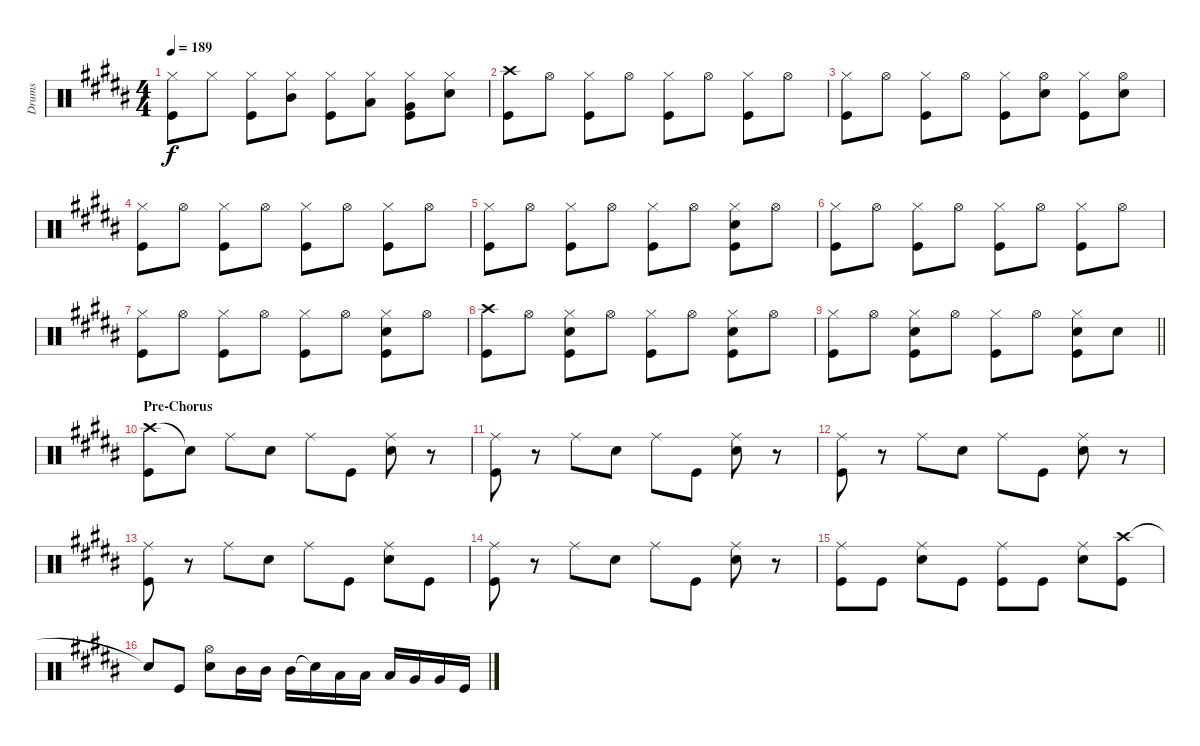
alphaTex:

\track ("Drums" "Drums") {instrument percussion}
\staff {score}
\articulation defaults
\ts (4 4)
\tempo 189
\clef neutral
\ks b
("Hi-Hat (closed)" "Kick (hit)").8{dy f} "Hi-Hat (closed)".8 ("Hi-Hat (closed)" "Kick (hit)").8 ("Hi-Hat (closed)" "Mid Tom (hit)").8 ("Hi-Hat (closed)" "Kick (hit)").8 ("Hi-Hat (closed)" "Low Tom (hit)").8 ("Hi-Hat (closed)" "Very Low Tom (hit)" "Kick (hit)").8 ("Hi-Hat (closed)" "Snare (hit) 2").8 |
("Crash high (hit)" "Kick (hit)").8 "Hi-Hat (open)".8 ("Hi-Hat (closed)" "Kick (hit)").8 "Hi-Hat (open)".8 ("Hi-Hat (closed)" "Kick (hit)").8 "Hi-Hat (open)".8 ("Hi-Hat (closed)" "Kick (hit)").8 "Hi-Hat (open)".8 |
("Hi-Hat (closed)" "Kick (hit)").8 "Hi-Hat (open)".8 ("Hi-Hat (closed)" "Kick (hit)").8 "Hi-Hat (open)".8 ("Hi-Hat (closed)" "Kick (hit)").8 ("Hi-Hat (open)" "Snare (hit) 2").8 ("Hi-Hat (closed)" "Kick (hit)").8 ("Hi-Hat (open)" "Snare (hit) 2").8 |
("Hi-Hat (closed)" "Kick (hit)").8 "Hi-Hat (open)".8 ("Hi-Hat (closed)" "Kick (hit)").8 "Hi-Hat (open)".8 ("Hi-Hat (closed)" "Kick (hit)").8 "Hi-Hat (open)".8 ("Hi-Hat (closed)" "Kick (hit)").8 "Hi-Hat (open)".8 |
("Hi-Hat (closed)" "Kick (hit)").8 "Hi-Hat (open)".8 ("Hi-Hat (closed)" "Kick (hit)").8 "Hi-Hat (open)".8 ("Hi-Hat (closed)" "Kick (hit)").8 "Hi-Hat (open)".8 ("Hi-Hat (closed)" "Snare (hit) 2" "Kick (hit)").8 "Hi-Hat (open)".8 |
("Hi-Hat (closed)" "Kick (hit)").8 "Hi-Hat (open)".8 ("Hi-Hat (closed)" "Kick (hit)").8 "Hi-Hat (open)".8 ("Hi-Hat (closed)" "Kick (hit)").8 "Hi-Hat (open)".8 ("Hi-Hat (closed)" "Kick (hit)").8 "Hi-Hat (open)".8 |
("Hi-Hat (closed)" "Kick (hit)").8 "Hi-Hat (open)".8 ("Hi-Hat (closed)" "Kick (hit)").8 "Hi-Hat (open)".8 ("Hi-Hat (closed)" "Kick (hit)").8 "Hi-Hat (open)".8 ("Hi-Hat (closed)" "Snare (hit) 2" "Kick (hit)").8 "Hi-Hat (open)".8 |
("Crash high (hit)" "Kick (hit)").8 "Hi-Hat (open)".8 ("Hi-Hat (closed)" "Snare (hit) 2" "Kick (hit)").8 "Hi-Hat (open)".8 ("Hi-Hat (closed)" "Kick (hit)").8 "Hi-Hat (open)".8 ("Hi-Hat (closed)" "Snare (hit) 2" "Kick (hit)").8 "Hi-Hat (open)".8 |
\barLineRight lightlight
("Hi-Hat (closed)" "Kick (hit)").8 "Hi-Hat (open)".8 ("Hi-Hat (closed)" "Snare (hit) 2" "Kick (hit)").8 "Hi-Hat (open)".8 ("Hi-Hat (closed)" "Kick (hit)").8 "Hi-Hat (open)".8 ("Hi-Hat (closed)" "Snare (hit) 2" "Kick (hit)").8 "Snare (hit) 2".8 |
\section ("" "Pre-Chorus")
("Crash high (hit)" "Kick (hit)").8 "Snare (hit)"{t}.8 "Ride (middle)".8 "Snare (hit) 2".8 "Ride (middle)".8 "Kick (hit)".8 ("Ride (middle)" "Snare (hit) 2").8 r.8 |
("Ride (middle)" "Kick (hit)").8 r.8 "Ride (middle)".8 "Snare (hit) 2".8 "Ride (middle)".8 "Kick (hit)".8 ("Ride (middle)" "Snare (hit) 2").8 r.8 |
("Ride (middle)" "Kick (hit)").8 r.8 "Ride (middle)".8 "Snare (hit) 2".8 "Ride (middle)".8 "Kick (hit)".8 ("Ride (middle)" "Snare (hit) 2").8 r.8 |
("Ride (middle)" "Kick (hit)").8 r.8 "Ride (middle)".8 "Snare (hit) 2".8 "Ride (middle)".8 "Kick (hit)".8 ("Ride (middle)" "Snare (hit) 2").8 "Kick (hit)".8 |
("Ride (middle)" "Kick (hit)").8 r.8 "Ride (middle)".8 "Snare (hit) 2".8 "Ride (middle)".8 "Kick (hit)".8 ("Ride (middle)" "Snare (hit) 2").8 r.8 |
("Ride (middle)" "Kick (hit)").8 "Kick (hit)".8 ("Ride (middle)" "Snare (hit) 2").8 "Kick (hit)".8 ("Ride (middle)" "Kick (hit)").8 "Kick (hit)".8 ("Ride (middle)" "Snare (hit) 2").8 ("Crash high (hit)" "Kick (hit)").8 |
"Snare (hit)"{t}.8 "Kick (hit)".8 ("Hi-Hat (open)" "Snare (hit) 2").8 "Mid Tom (hit)".16 "Mid Tom (hit)".16 "Mid Tom (hit)".16 "Snare (hit)"{t}.16 "Low Tom (hit)".16 "Low Tom (hit)".16 "Low Tom (hit)".16 "Very Low Tom (hit)".16 "Very Low Tom (hit)".16 "Kick (hit)".16
